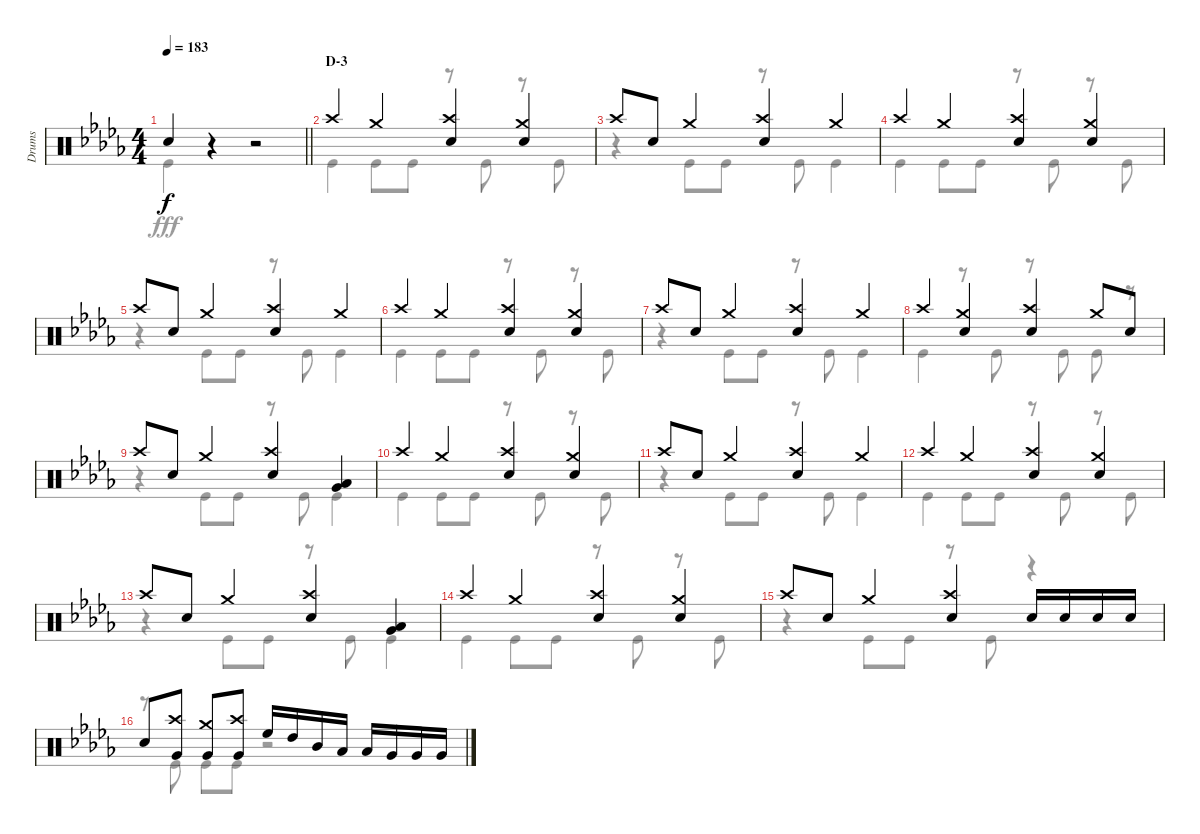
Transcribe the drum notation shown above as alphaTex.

\track ("Drums" "Drums") {instrument percussion}
\staff {score}
\articulation defaults
\voice
\ts (4 4)
\tempo 183
\clef neutral
\barLineRight lightlight
\ks db "Snare (hit) 2".4{dy f}
r.4 r.2 |
\section ("" "D-3")
"Crash high (hit)".4 "Crash medium (hit)".4 ("Crash high (hit)" "Snare (hit) 2").4 ("Crash medium (hit)" "Snare (hit) 2").4 |
"Crash high (hit)".8 "Snare (hit) 2".8 "Crash medium (hit)".4 ("Crash high (hit)" "Snare (hit) 2").4 "Crash medium (hit)".4 |
"Crash high (hit)".4 "Crash medium (hit)".4 ("Crash high (hit)" "Snare (hit) 2").4 ("Crash medium (hit)" "Snare (hit) 2").4 |
"Crash high (hit)".8 "Snare (hit) 2".8 "Crash medium (hit)".4 ("Crash high (hit)" "Snare (hit) 2").4 "Crash medium (hit)".4 |
"Crash high (hit)".4 "Crash medium (hit)".4 ("Crash high (hit)" "Snare (hit) 2").4 ("Crash medium (hit)" "Snare (hit) 2").4 |
"Crash high (hit)".8 "Snare (hit) 2".8 "Crash medium (hit)".4 ("Crash high (hit)" "Snare (hit) 2").4 "Crash medium (hit)".4 |
"Crash high (hit)".4 ("Crash medium (hit)" "Snare (hit) 2").4 ("Crash high (hit)" "Snare (hit) 2").4 "Crash medium (hit)".8 "Snare (hit) 2".8 |
"Crash high (hit)".8 "Snare (hit) 2".8 "Crash medium (hit)".4 ("Crash high (hit)" "Snare (hit) 2").4 ("Low Tom (hit)" "Very Low Tom (hit)").4 |
"Crash high (hit)".4 "Crash medium (hit)".4 ("Crash high (hit)" "Snare (hit) 2").4 ("Crash medium (hit)" "Snare (hit) 2").4 |
"Crash high (hit)".8 "Snare (hit) 2".8 "Crash medium (hit)".4 ("Crash high (hit)" "Snare (hit) 2").4 "Crash medium (hit)".4 |
"Crash high (hit)".4 "Crash medium (hit)".4 ("Crash high (hit)" "Snare (hit) 2").4 ("Crash medium (hit)" "Snare (hit) 2").4 |
"Crash high (hit)".8 "Snare (hit) 2".8 "Crash medium (hit)".4 ("Crash high (hit)" "Snare (hit) 2").4 ("Low Tom (hit)" "Very Low Tom (hit)").4 |
"Crash high (hit)".4 "Crash medium (hit)".4 ("Crash high (hit)" "Snare (hit) 2").4 ("Crash medium (hit)" "Snare (hit) 2").4 |
"Crash high (hit)".8 "Snare (hit) 2".8 "Crash medium (hit)".4 ("Crash high (hit)" "Snare (hit) 2").4 "Snare (hit) 2".16 "Snare (hit) 2".16 "Snare (hit) 2".16 "Snare (hit) 2".16 |
"Snare (hit) 2".8 ("Crash high (hit)" "Very Low Tom (hit)").8 ("Crash medium (hit)" "Very Low Tom (hit)").8 ("Crash high (hit)" "Very Low Tom (hit)").8 "High Floor Tom (hit)".16 "High Tom (hit)".16 "Mid Tom (hit)".16 "Low Tom (hit)".16 "Low Tom (hit)".16 "Very Low Tom (hit)".16 "Very Low Tom (hit)".16 "Very Low Tom (hit)".16
\voice
\clef neutral
\ottava regular
\simile none
\barLineRight lightlight
\ks db "Kick (hit)".4{dy fff}
r.4 r.2 |
"Kick (hit)".4 "Kick (hit)".8 "Kick (hit)".8 r.8 "Kick (hit)".8 r.8 "Kick (hit)".8 |
r.4 "Kick (hit)".8 "Kick (hit)".8 r.8 "Kick (hit)".8 "Kick (hit)".4 |
"Kick (hit)".4 "Kick (hit)".8 "Kick (hit)".8 r.8 "Kick (hit)".8 r.8 "Kick (hit)".8 |
r.4 "Kick (hit)".8 "Kick (hit)".8 r.8 "Kick (hit)".8 "Kick (hit)".4 |
"Kick (hit)".4 "Kick (hit)".8 "Kick (hit)".8 r.8 "Kick (hit)".8 r.8 "Kick (hit)".8 |
r.4 "Kick (hit)".8 "Kick (hit)".8 r.8 "Kick (hit)".8 "Kick (hit)".4 |
"Kick (hit)".4 r.8 "Kick (hit)".8 r.8 "Kick (hit)".8 "Kick (hit)".8 r.8 |
r.4 "Kick (hit)".8 "Kick (hit)".8 r.8 "Kick (hit)".8 "Kick (hit)".4 |
"Kick (hit)".4 "Kick (hit)".8 "Kick (hit)".8 r.8 "Kick (hit)".8 r.8 "Kick (hit)".8 |
r.4 "Kick (hit)".8 "Kick (hit)".8 r.8 "Kick (hit)".8 "Kick (hit)".4 |
"Kick (hit)".4 "Kick (hit)".8 "Kick (hit)".8 r.8 "Kick (hit)".8 r.8 "Kick (hit)".8 |
r.4 "Kick (hit)".8 "Kick (hit)".8 r.8 "Kick (hit)".8 "Kick (hit)".4 |
"Kick (hit)".4 "Kick (hit)".8 "Kick (hit)".8 r.8 "Kick (hit)".8 r.8 "Kick (hit)".8 |
r.4 "Kick (hit)".8 "Kick (hit)".8 r.8 "Kick (hit)".8 r.4 |
r.8 "Kick (hit)".8 "Kick (hit)".8 "Kick (hit)".8 r.2
